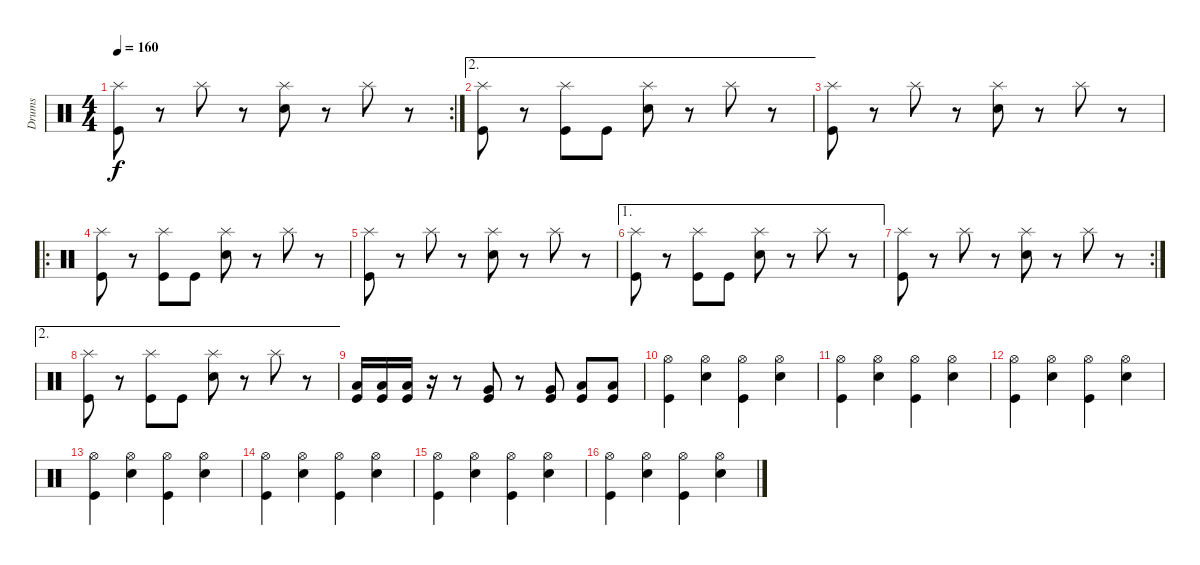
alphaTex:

\track ("Drums" "Drums") {instrument percussion}
\staff {score}
\articulation defaults
\rc 2
\ts (4 4)
\tempo 160
\clef neutral
\ks c
("Kick (hit)" "Splash (hit)").8{dy f} r.8 "Splash (hit)".8 r.8 ("Electric Snare (hit)" "Splash (hit)").8 r.8 "Splash (hit)".8 r.8 |
\ae 2
("Kick (hit)" "Splash (hit)").8 r.8 ("Kick (hit)" "Splash (hit)").8 "Kick (hit)".8 ("Electric Snare (hit)" "Splash (hit)").8 r.8 "Splash (hit)".8 r.8 |
("Kick (hit)" "Splash (hit)").8 r.8 "Splash (hit)".8 r.8 ("Electric Snare (hit)" "Splash (hit)").8 r.8 "Splash (hit)".8 r.8 |
\ro
("Kick (hit)" "Splash (hit)").8 r.8 ("Kick (hit)" "Splash (hit)").8 "Kick (hit)".8 ("Electric Snare (hit)" "Splash (hit)").8 r.8 "Splash (hit)".8 r.8 |
("Kick (hit)" "Splash (hit)").8 r.8 "Splash (hit)".8 r.8 ("Electric Snare (hit)" "Splash (hit)").8 r.8 "Splash (hit)".8 r.8 |
\ae 1
("Kick (hit)" "Splash (hit)").8 r.8 ("Kick (hit)" "Splash (hit)").8 "Kick (hit)".8 ("Electric Snare (hit)" "Splash (hit)").8 r.8 "Splash (hit)".8 r.8 |
\rc 2
("Kick (hit)" "Splash (hit)").8 r.8 "Splash (hit)".8 r.8 ("Electric Snare (hit)" "Splash (hit)").8 r.8 "Splash (hit)".8 r.8 |
\ae 2
("Kick (hit)" "Splash (hit)").8 r.8 ("Kick (hit)" "Splash (hit)").8 "Kick (hit)".8 ("Electric Snare (hit)" "Splash (hit)").8 r.8 "Splash (hit)".8 r.8 |
("Kick (hit)" "Low Tom (hit)").16 ("Kick (hit)" "Low Tom (hit)").16 ("Kick (hit)" "Low Tom (hit)").16 r.16 r.8 ("Kick (hit)" "Very Low Tom (hit)").8 r.8 ("Kick (hit)" "Very Low Tom (hit)").8 ("Kick (hit)" "Low Floor Tom (hit)").8 ("Kick (hit)" "Low Floor Tom (hit)").8 |
("Kick (hit)" "Hi-Hat (open)").4 ("Electric Snare (hit)" "Hi-Hat (open)").4 ("Kick (hit)" "Hi-Hat (open)").4 ("Electric Snare (hit)" "Hi-Hat (open)").4 |
("Kick (hit)" "Hi-Hat (open)").4 ("Electric Snare (hit)" "Hi-Hat (open)").4 ("Kick (hit)" "Hi-Hat (open)").4 ("Electric Snare (hit)" "Hi-Hat (open)").4 |
("Kick (hit)" "Hi-Hat (open)").4 ("Electric Snare (hit)" "Hi-Hat (open)").4 ("Kick (hit)" "Hi-Hat (open)").4 ("Electric Snare (hit)" "Hi-Hat (open)").4 |
("Kick (hit)" "Hi-Hat (open)").4 ("Electric Snare (hit)" "Hi-Hat (open)").4 ("Kick (hit)" "Hi-Hat (open)").4 ("Electric Snare (hit)" "Hi-Hat (open)").4 |
("Kick (hit)" "Hi-Hat (open)").4 ("Electric Snare (hit)" "Hi-Hat (open)").4 ("Kick (hit)" "Hi-Hat (open)").4 ("Electric Snare (hit)" "Hi-Hat (open)").4 |
("Kick (hit)" "Hi-Hat (open)").4 ("Electric Snare (hit)" "Hi-Hat (open)").4 ("Kick (hit)" "Hi-Hat (open)").4 ("Electric Snare (hit)" "Hi-Hat (open)").4 |
("Kick (hit)" "Hi-Hat (open)").4 ("Electric Snare (hit)" "Hi-Hat (open)").4 ("Kick (hit)" "Hi-Hat (open)").4 ("Electric Snare (hit)" "Hi-Hat (open)").4
